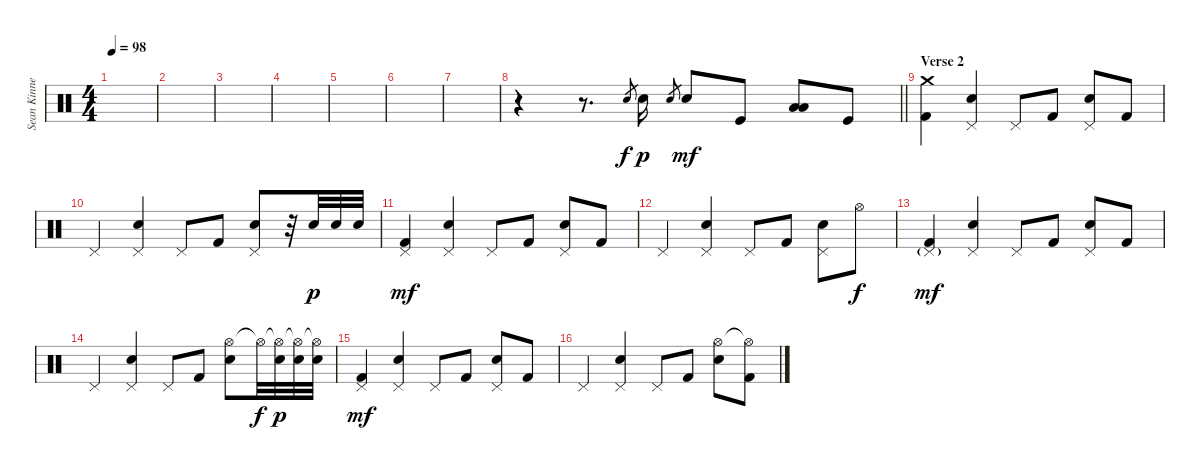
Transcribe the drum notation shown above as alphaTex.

\track ("Sean Kinney" "Sean Kinne") {instrument percussion}
\staff {score}
\articulation defaults
\ts (4 4)
\tempo 98
\clef neutral
\ks c
|
|
|
|
|
|
|
\barLineRight lightlight
r.4 r.8{d} "Snare (hit) 2".8{gr} "Snare (hit) 2".16{dy p} "Snare (hit) 2".8{gr} "Snare (hit) 2".8{dy mf} "Kick (hit)".8 ("Low Floor Tom (hit)" "Low Tom (hit)").8 "Kick (hit)".8 |
\section ("" "Verse 2")
("Crash medium (hit)" "Kick (hit) 2").4 ("Pedal Hi-Hat (hit)" "Snare (hit) 2").4 "Pedal Hi-Hat (hit)".8 "Kick (hit) 2".8 ("Pedal Hi-Hat (hit)" "Snare (hit) 2").8 "Kick (hit) 2".8 |
"Pedal Hi-Hat (hit)".4 ("Pedal Hi-Hat (hit)" "Snare (hit) 2").4 "Pedal Hi-Hat (hit)".8 "Kick (hit) 2".8 ("Pedal Hi-Hat (hit)" "Snare (hit) 2").8 r.32 "Snare (hit) 2".32{dy p} "Snare (hit) 2".32 "Snare (hit) 2".32 |
("Pedal Hi-Hat (hit)" "Kick (hit) 2").4{dy mf} ("Pedal Hi-Hat (hit)" "Snare (hit) 2").4 "Pedal Hi-Hat (hit)".8 "Kick (hit) 2".8 ("Pedal Hi-Hat (hit)" "Snare (hit) 2").8 "Kick (hit) 2".8 |
"Pedal Hi-Hat (hit)".4 ("Pedal Hi-Hat (hit)" "Snare (hit) 2").4 "Pedal Hi-Hat (hit)".8 "Kick (hit) 2".8 ("Pedal Hi-Hat (hit)" "Snare (hit) 2").8 "Hi-Hat (open)".8{dy f} |
("Pedal Hi-Hat (hit)"{g} "Kick (hit) 2").4{dy mf} ("Pedal Hi-Hat (hit)" "Snare (hit) 2").4 "Pedal Hi-Hat (hit)".8 "Kick (hit) 2".8 ("Pedal Hi-Hat (hit)" "Snare (hit) 2").8 "Kick (hit) 2".8 |
"Pedal Hi-Hat (hit)".4 ("Pedal Hi-Hat (hit)" "Snare (hit) 2").4 "Pedal Hi-Hat (hit)".8 "Kick (hit) 2".8 ("Hi-Hat (open)" "Snare (hit) 2").8 "Hi-Hat (open)"{t}.32{dy f} ("Hi-Hat (open)"{t} "Snare (hit) 2").32{dy p} ("Hi-Hat (open)"{t} "Snare (hit) 2").32 ("Hi-Hat (open)"{t} "Snare (hit) 2").32 |
("Pedal Hi-Hat (hit)" "Kick (hit) 2").4{dy mf} ("Pedal Hi-Hat (hit)" "Snare (hit) 2").4 "Pedal Hi-Hat (hit)".8 "Kick (hit) 2".8 ("Pedal Hi-Hat (hit)" "Snare (hit) 2").8 "Kick (hit) 2".8 |
"Pedal Hi-Hat (hit)".4 ("Pedal Hi-Hat (hit)" "Snare (hit) 2").4 "Pedal Hi-Hat (hit)".8 "Kick (hit) 2".8 ("Hi-Hat (open)" "Snare (hit) 2").8 ("Hi-Hat (open)"{t} "Kick (hit) 2").8
